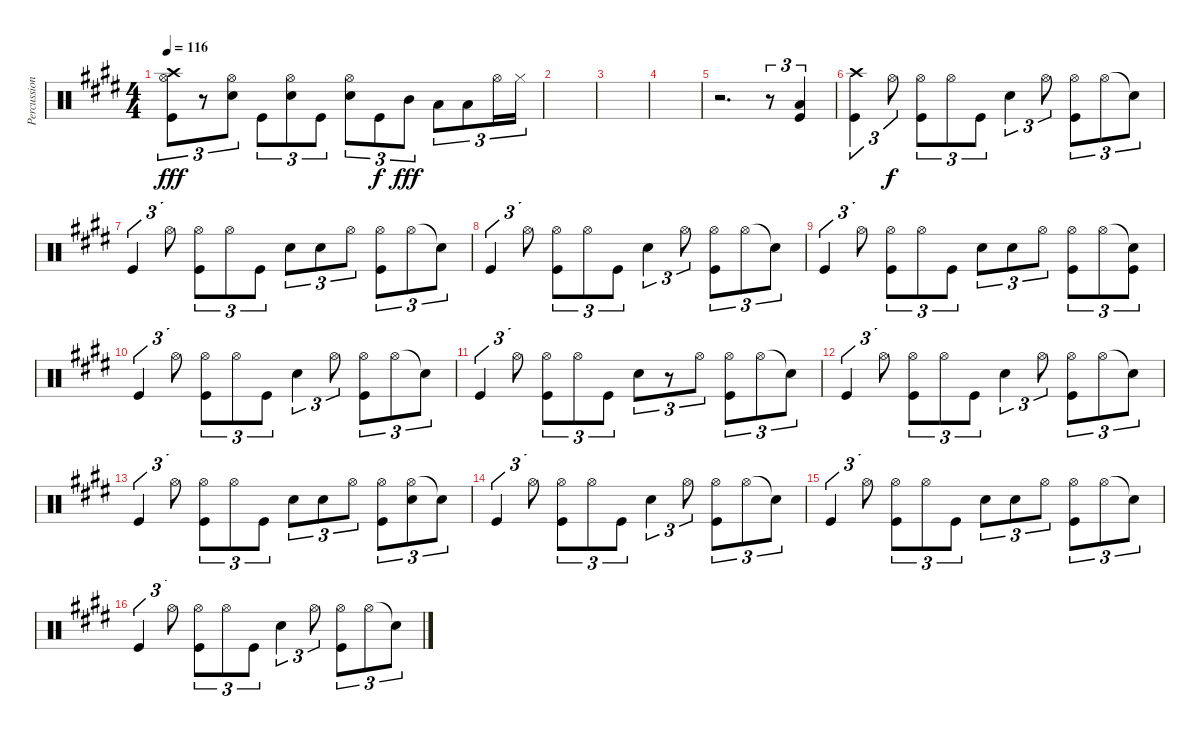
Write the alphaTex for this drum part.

\track ("Percussion" "Percussion") {instrument percussion}
\staff {score}
\articulation defaults
\ts (4 4)
\tempo 116
\clef neutral
\ks c#minor
("Crash high (hit)" "Hi-Hat (open)" "Kick (hit)").8{tu (3 2) dy fff} r.8{tu (3 2)} ("Hi-Hat (open)" "Snare (hit) 2").8{tu (3 2)} "Kick (hit)".8{tu (3 2)} ("Hi-Hat (open)" "Snare (hit) 2").8{tu (3 2)} "Kick (hit)".8{tu (3 2)} ("Hi-Hat (open)" "Snare (hit) 2").8{tu (3 2)} "Kick (hit)".8{tu (3 2) dy f} "Mid Tom (hit)".8{tu (3 2) dy fff} "Low Tom (hit)".8{tu (3 2)} "Low Floor Tom (hit)".8{tu (3 2)} "Hi-Hat (open)".16{tu (3 2)} "Hi-Hat (closed)".16{tu (3 2)} |
|
|
|
r.2{d} r.8{tu (3 2)} ("Low Floor Tom (hit)" "Kick (hit)").4{tu (3 2)} |
("Crash high (hit)" "Kick (hit)").4{tu (3 2)} "Hi-Hat (open)".8{tu (3 2) dy f} ("Hi-Hat (open)" "Kick (hit)").8{tu (3 2)} "Hi-Hat (open)".8{tu (3 2)} "Kick (hit)".8{tu (3 2)} "Snare (hit) 2".4{tu (3 2)} "Hi-Hat (open)".8{tu (3 2)} ("Hi-Hat (open)" "Kick (hit)").8{tu (3 2)} "Hi-Hat (open)".8{tu (3 2)} "Snare (hit)"{t}.8{tu (3 2)} |
"Kick (hit)".4{tu (3 2)} "Hi-Hat (open)".8{tu (3 2)} ("Hi-Hat (open)" "Kick (hit)").8{tu (3 2)} "Hi-Hat (open)".8{tu (3 2)} "Kick (hit)".8{tu (3 2)} "Snare (hit) 2".8{tu (3 2)} "Snare (hit) 2".8{tu (3 2)} "Hi-Hat (open)".8{tu (3 2)} ("Hi-Hat (open)" "Kick (hit)").8{tu (3 2)} "Hi-Hat (open)".8{tu (3 2)} "Snare (hit)"{t}.8{tu (3 2)} |
"Kick (hit)".4{tu (3 2)} "Hi-Hat (open)".8{tu (3 2)} ("Hi-Hat (open)" "Kick (hit)").8{tu (3 2)} "Hi-Hat (open)".8{tu (3 2)} "Kick (hit)".8{tu (3 2)} "Snare (hit) 2".4{tu (3 2)} "Hi-Hat (open)".8{tu (3 2)} ("Hi-Hat (open)" "Kick (hit)").8{tu (3 2)} "Hi-Hat (open)".8{tu (3 2)} "Snare (hit)"{t}.8{tu (3 2)} |
"Kick (hit)".4{tu (3 2)} "Hi-Hat (open)".8{tu (3 2)} ("Hi-Hat (open)" "Kick (hit)").8{tu (3 2)} "Hi-Hat (open)".8{tu (3 2)} "Kick (hit)".8{tu (3 2)} "Snare (hit) 2".8{tu (3 2)} "Snare (hit) 2".8{tu (3 2)} "Hi-Hat (open)".8{tu (3 2)} ("Hi-Hat (open)" "Kick (hit)").8{tu (3 2)} "Hi-Hat (open)".8{tu (3 2)} ("Snare (hit)"{t} "Kick (hit)").8{tu (3 2)} |
"Kick (hit)".4{tu (3 2)} "Hi-Hat (open)".8{tu (3 2)} ("Hi-Hat (open)" "Kick (hit)").8{tu (3 2)} "Hi-Hat (open)".8{tu (3 2)} "Kick (hit)".8{tu (3 2)} "Snare (hit) 2".4{tu (3 2)} "Hi-Hat (open)".8{tu (3 2)} ("Hi-Hat (open)" "Kick (hit)").8{tu (3 2)} "Hi-Hat (open)".8{tu (3 2)} "Snare (hit)"{t}.8{tu (3 2)} |
"Kick (hit)".4{tu (3 2)} "Hi-Hat (open)".8{tu (3 2)} ("Hi-Hat (open)" "Kick (hit)").8{tu (3 2)} "Hi-Hat (open)".8{tu (3 2)} "Kick (hit)".8{tu (3 2)} "Snare (hit) 2".8{tu (3 2)} r.8{tu (3 2)} "Hi-Hat (open)".8{tu (3 2)} ("Hi-Hat (open)" "Kick (hit)").8{tu (3 2)} "Hi-Hat (open)".8{tu (3 2)} "Snare (hit)"{t}.8{tu (3 2)} |
"Kick (hit)".4{tu (3 2)} "Hi-Hat (open)".8{tu (3 2)} ("Hi-Hat (open)" "Kick (hit)").8{tu (3 2)} "Hi-Hat (open)".8{tu (3 2)} "Kick (hit)".8{tu (3 2)} "Snare (hit) 2".4{tu (3 2)} "Hi-Hat (open)".8{tu (3 2)} ("Hi-Hat (open)" "Kick (hit)").8{tu (3 2)} "Hi-Hat (open)".8{tu (3 2)} "Snare (hit)"{t}.8{tu (3 2)} |
"Kick (hit)".4{tu (3 2)} "Hi-Hat (open)".8{tu (3 2)} ("Hi-Hat (open)" "Kick (hit)").8{tu (3 2)} "Hi-Hat (open)".8{tu (3 2)} "Kick (hit)".8{tu (3 2)} "Snare (hit) 2".8{tu (3 2)} "Snare (hit) 2".8{tu (3 2)} "Hi-Hat (open)".8{tu (3 2)} ("Hi-Hat (open)" "Kick (hit)").8{tu (3 2)} ("Hi-Hat (open)" "Snare (hit) 2").8{tu (3 2)} "Snare (hit)"{t}.8{tu (3 2)} |
"Kick (hit)".4{tu (3 2)} "Hi-Hat (open)".8{tu (3 2)} ("Hi-Hat (open)" "Kick (hit)").8{tu (3 2)} "Hi-Hat (open)".8{tu (3 2)} "Kick (hit)".8{tu (3 2)} "Snare (hit) 2".4{tu (3 2)} "Hi-Hat (open)".8{tu (3 2)} ("Hi-Hat (open)" "Kick (hit)").8{tu (3 2)} "Hi-Hat (open)".8{tu (3 2)} "Snare (hit)"{t}.8{tu (3 2)} |
"Kick (hit)".4{tu (3 2)} "Hi-Hat (open)".8{tu (3 2)} ("Hi-Hat (open)" "Kick (hit)").8{tu (3 2)} "Hi-Hat (open)".8{tu (3 2)} "Kick (hit)".8{tu (3 2)} "Snare (hit) 2".8{tu (3 2)} "Snare (hit) 2".8{tu (3 2)} "Hi-Hat (open)".8{tu (3 2)} ("Hi-Hat (open)" "Kick (hit)").8{tu (3 2)} "Hi-Hat (open)".8{tu (3 2)} "Snare (hit)"{t}.8{tu (3 2)} |
"Kick (hit)".4{tu (3 2)} "Hi-Hat (open)".8{tu (3 2)} ("Hi-Hat (open)" "Kick (hit)").8{tu (3 2)} "Hi-Hat (open)".8{tu (3 2)} "Kick (hit)".8{tu (3 2)} "Snare (hit) 2".4{tu (3 2)} "Hi-Hat (open)".8{tu (3 2)} ("Hi-Hat (open)" "Kick (hit)").8{tu (3 2)} "Hi-Hat (open)".8{tu (3 2)} "Snare (hit)"{t}.8{tu (3 2)}
